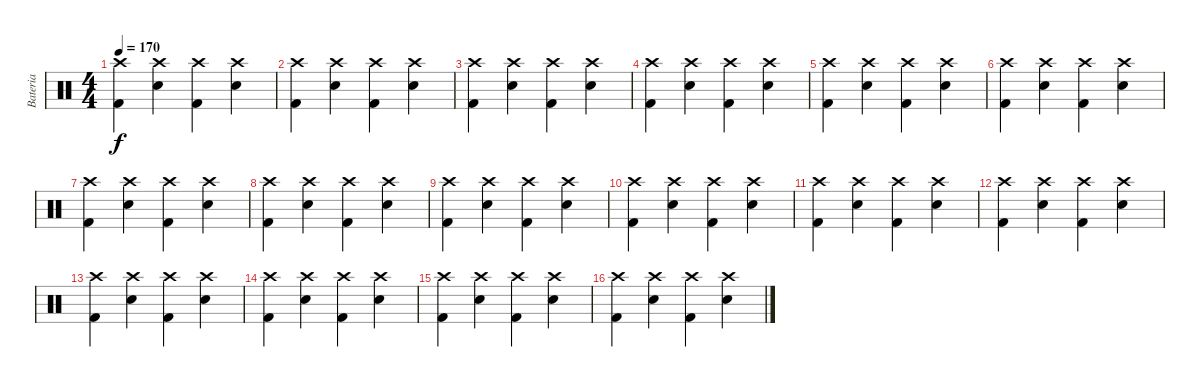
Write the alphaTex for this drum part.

\track ("Bateria" "Bateria") {instrument percussion}
\staff {score}
\articulation defaults
\ts (4 4)
\tempo 170
\clef neutral
\ks c
("Crash high (hit)" "Kick (hit) 2").4{dy f} ("Crash high (hit)" "Snare (hit) 2").4 ("Crash high (hit)" "Kick (hit) 2").4 ("Crash high (hit)" "Snare (hit) 2").4 |
("Crash high (hit)" "Kick (hit) 2").4 ("Crash high (hit)" "Snare (hit) 2").4 ("Crash high (hit)" "Kick (hit) 2").4 ("Crash high (hit)" "Snare (hit) 2").4 |
("Crash high (hit)" "Kick (hit) 2").4 ("Crash high (hit)" "Snare (hit) 2").4 ("Crash high (hit)" "Kick (hit) 2").4 ("Crash high (hit)" "Snare (hit) 2").4 |
("Crash high (hit)" "Kick (hit) 2").4 ("Crash high (hit)" "Snare (hit) 2").4 ("Crash high (hit)" "Kick (hit) 2").4 ("Crash high (hit)" "Snare (hit) 2").4 |
("Crash high (hit)" "Kick (hit) 2").4 ("Crash high (hit)" "Snare (hit) 2").4 ("Crash high (hit)" "Kick (hit) 2").4 ("Crash high (hit)" "Snare (hit) 2").4 |
("Crash high (hit)" "Kick (hit) 2").4 ("Crash high (hit)" "Snare (hit) 2").4 ("Crash high (hit)" "Kick (hit) 2").4 ("Crash high (hit)" "Snare (hit) 2").4 |
("Crash high (hit)" "Kick (hit) 2").4 ("Crash high (hit)" "Snare (hit) 2").4 ("Crash high (hit)" "Kick (hit) 2").4 ("Crash high (hit)" "Snare (hit) 2").4 |
("Crash high (hit)" "Kick (hit) 2").4 ("Crash high (hit)" "Snare (hit) 2").4 ("Crash high (hit)" "Kick (hit) 2").4 ("Crash high (hit)" "Snare (hit) 2").4 |
("Crash high (hit)" "Kick (hit) 2").4 ("Crash high (hit)" "Snare (hit) 2").4 ("Crash high (hit)" "Kick (hit) 2").4 ("Crash high (hit)" "Snare (hit) 2").4 |
("Crash high (hit)" "Kick (hit) 2").4 ("Crash high (hit)" "Snare (hit) 2").4 ("Crash high (hit)" "Kick (hit) 2").4 ("Crash high (hit)" "Snare (hit) 2").4 |
("Crash high (hit)" "Kick (hit) 2").4 ("Crash high (hit)" "Snare (hit) 2").4 ("Crash high (hit)" "Kick (hit) 2").4 ("Crash high (hit)" "Snare (hit) 2").4 |
("Crash high (hit)" "Kick (hit) 2").4 ("Crash high (hit)" "Snare (hit) 2").4 ("Crash high (hit)" "Kick (hit) 2").4 ("Crash high (hit)" "Snare (hit) 2").4 |
("Crash high (hit)" "Kick (hit) 2").4 ("Crash high (hit)" "Snare (hit) 2").4 ("Crash high (hit)" "Kick (hit) 2").4 ("Crash high (hit)" "Snare (hit) 2").4 |
("Crash high (hit)" "Kick (hit) 2").4 ("Crash high (hit)" "Snare (hit) 2").4 ("Crash high (hit)" "Kick (hit) 2").4 ("Crash high (hit)" "Snare (hit) 2").4 |
("Crash high (hit)" "Kick (hit) 2").4 ("Crash high (hit)" "Snare (hit) 2").4 ("Crash high (hit)" "Kick (hit) 2").4 ("Crash high (hit)" "Snare (hit) 2").4 |
("Crash high (hit)" "Kick (hit) 2").4 ("Crash high (hit)" "Snare (hit) 2").4 ("Crash high (hit)" "Kick (hit) 2").4 ("Crash high (hit)" "Snare (hit) 2").4
